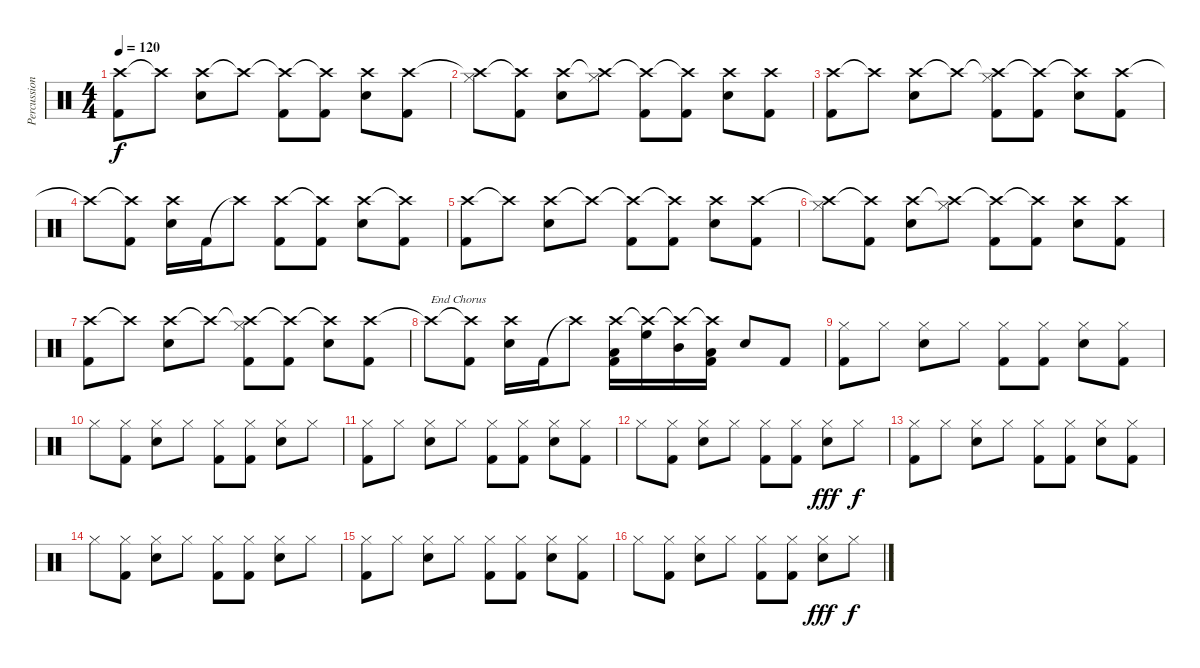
\track ("Percussion" "Percussion") {instrument percussion}
\staff {score}
\articulation defaults
\ts (4 4)
\tempo 120
\clef neutral
\ks c
("Crash high (hit)" "Kick (hit) 2").8{dy f} "Crash high (hit)"{t}.8 ("Crash high (hit)" "Electric Snare (hit)").8 "Crash high (hit)"{t}.8 ("Crash high (hit)"{t} "Kick (hit) 2").8 ("Crash high (hit)"{t} "Kick (hit) 2").8 ("Crash high (hit)" "Electric Snare (hit)").8 ("Crash high (hit)" "Kick (hit) 2").8 |
("Crash high (hit)"{t} "Hi-Hat (closed)").8 ("Crash high (hit)"{t} "Kick (hit) 2").8 ("Crash high (hit)" "Electric Snare (hit)").8 ("Crash high (hit)"{t} "Hi-Hat (closed)").8 ("Crash high (hit)"{t} "Kick (hit) 2").8 ("Crash high (hit)"{t} "Kick (hit) 2").8 ("Crash high (hit)" "Electric Snare (hit)").8 ("Crash high (hit)" "Kick (hit) 2").8 |
("Crash high (hit)" "Kick (hit) 2").8 "Crash high (hit)"{t}.8 ("Crash high (hit)" "Electric Snare (hit)").8 "Crash high (hit)"{t}.8 ("Crash high (hit)"{t} "Hi-Hat (closed)" "Kick (hit) 2").8 ("Crash high (hit)"{t} "Kick (hit) 2").8 ("Crash high (hit)"{t} "Electric Snare (hit)").8 ("Crash high (hit)" "Kick (hit) 2").8 |
"Crash high (hit)"{t}.8 ("Crash high (hit)"{t} "Kick (hit) 2").8 ("Crash high (hit)" "Electric Snare (hit)").16 "Kick (hit) 2".16 "Crash high (hit)"{t}.8 ("Crash high (hit)" "Kick (hit) 2").8 ("Crash high (hit)"{t} "Kick (hit) 2").8 ("Crash high (hit)" "Electric Snare (hit)").8 ("Crash high (hit)"{t} "Kick (hit) 2").8 |
("Crash high (hit)" "Kick (hit) 2").8 "Crash high (hit)"{t}.8 ("Crash high (hit)" "Electric Snare (hit)").8 "Crash high (hit)"{t}.8 ("Crash high (hit)"{t} "Kick (hit) 2").8 ("Crash high (hit)"{t} "Kick (hit) 2").8 ("Crash high (hit)" "Electric Snare (hit)").8 ("Crash high (hit)" "Kick (hit) 2").8 |
("Crash high (hit)"{t} "Hi-Hat (closed)").8 ("Crash high (hit)"{t} "Kick (hit) 2").8 ("Crash high (hit)" "Electric Snare (hit)").8 ("Crash high (hit)"{t} "Hi-Hat (closed)").8 ("Crash high (hit)"{t} "Kick (hit) 2").8 ("Crash high (hit)"{t} "Kick (hit) 2").8 ("Crash high (hit)" "Electric Snare (hit)").8 ("Crash high (hit)" "Kick (hit) 2").8 |
("Crash high (hit)" "Kick (hit) 2").8 "Crash high (hit)"{t}.8 ("Crash high (hit)" "Electric Snare (hit)").8 "Crash high (hit)"{t}.8 ("Crash high (hit)"{t} "Hi-Hat (closed)" "Kick (hit) 2").8 ("Crash high (hit)"{t} "Kick (hit) 2").8 ("Crash high (hit)"{t} "Electric Snare (hit)").8 ("Crash high (hit)" "Kick (hit) 2").8 |
"Crash high (hit)"{t}.8{txt "End Chorus"} ("Crash high (hit)"{t} "Kick (hit) 2").8 ("Crash high (hit)" "Electric Snare (hit)").16 "Kick (hit) 2".16 "Crash high (hit)"{t}.8 ("Crash high (hit)" "Low Floor Tom (hit)" "Kick (hit) 2").16 ("Crash high (hit)"{t} "High Floor Tom (hit)").16 ("Crash high (hit)"{t} "Mid Tom (hit)").16 ("Crash high (hit)"{t} "Low Floor Tom (hit)" "Kick (hit) 2").16 "Electric Snare (hit)".8 "Kick (hit) 2".8 |
("Hi-Hat (closed)" "Kick (hit) 2").8 "Hi-Hat (closed)".8 ("Hi-Hat (closed)" "Electric Snare (hit)").8 "Hi-Hat (closed)".8 ("Hi-Hat (closed)" "Kick (hit) 2").8 ("Hi-Hat (closed)" "Kick (hit) 2").8 ("Hi-Hat (closed)" "Electric Snare (hit)").8 ("Hi-Hat (closed)" "Kick (hit) 2").8 |
"Hi-Hat (closed)".8 ("Hi-Hat (closed)" "Kick (hit) 2").8 ("Hi-Hat (closed)" "Electric Snare (hit)").8 "Hi-Hat (closed)".8 ("Hi-Hat (closed)" "Kick (hit) 2").8 ("Hi-Hat (closed)" "Kick (hit) 2").8 ("Hi-Hat (closed)" "Electric Snare (hit)").8 "Hi-Hat (closed)".8 |
("Hi-Hat (closed)" "Kick (hit) 2").8 "Hi-Hat (closed)".8 ("Hi-Hat (closed)" "Electric Snare (hit)").8 "Hi-Hat (closed)".8 ("Hi-Hat (closed)" "Kick (hit) 2").8 ("Hi-Hat (closed)" "Kick (hit) 2").8 ("Hi-Hat (closed)" "Electric Snare (hit)").8 ("Hi-Hat (closed)" "Kick (hit) 2").8 |
"Hi-Hat (closed)".8 ("Hi-Hat (closed)" "Kick (hit) 2").8 ("Hi-Hat (closed)" "Electric Snare (hit)").8 "Hi-Hat (closed)".8 ("Hi-Hat (closed)" "Kick (hit) 2").8 ("Hi-Hat (closed)" "Kick (hit) 2").8 ("Hi-Hat (closed)" "Electric Snare (hit)").8{dy fff} "Hi-Hat (closed)".8{dy f} |
("Hi-Hat (closed)" "Kick (hit) 2").8 "Hi-Hat (closed)".8 ("Hi-Hat (closed)" "Electric Snare (hit)").8 "Hi-Hat (closed)".8 ("Hi-Hat (closed)" "Kick (hit) 2").8 ("Hi-Hat (closed)" "Kick (hit) 2").8 ("Hi-Hat (closed)" "Electric Snare (hit)").8 ("Hi-Hat (closed)" "Kick (hit) 2").8 |
"Hi-Hat (closed)".8 ("Hi-Hat (closed)" "Kick (hit) 2").8 ("Hi-Hat (closed)" "Electric Snare (hit)").8 "Hi-Hat (closed)".8 ("Hi-Hat (closed)" "Kick (hit) 2").8 ("Hi-Hat (closed)" "Kick (hit) 2").8 ("Hi-Hat (closed)" "Electric Snare (hit)").8 "Hi-Hat (closed)".8 |
("Hi-Hat (closed)" "Kick (hit) 2").8 "Hi-Hat (closed)".8 ("Hi-Hat (closed)" "Electric Snare (hit)").8 "Hi-Hat (closed)".8 ("Hi-Hat (closed)" "Kick (hit) 2").8 ("Hi-Hat (closed)" "Kick (hit) 2").8 ("Hi-Hat (closed)" "Electric Snare (hit)").8 ("Hi-Hat (closed)" "Kick (hit) 2").8 |
"Hi-Hat (closed)".8 ("Hi-Hat (closed)" "Kick (hit) 2").8 ("Hi-Hat (closed)" "Electric Snare (hit)").8 "Hi-Hat (closed)".8 ("Hi-Hat (closed)" "Kick (hit) 2").8 ("Hi-Hat (closed)" "Kick (hit) 2").8 ("Hi-Hat (closed)" "Electric Snare (hit)").8{dy fff} "Hi-Hat (closed)".8{dy f}
